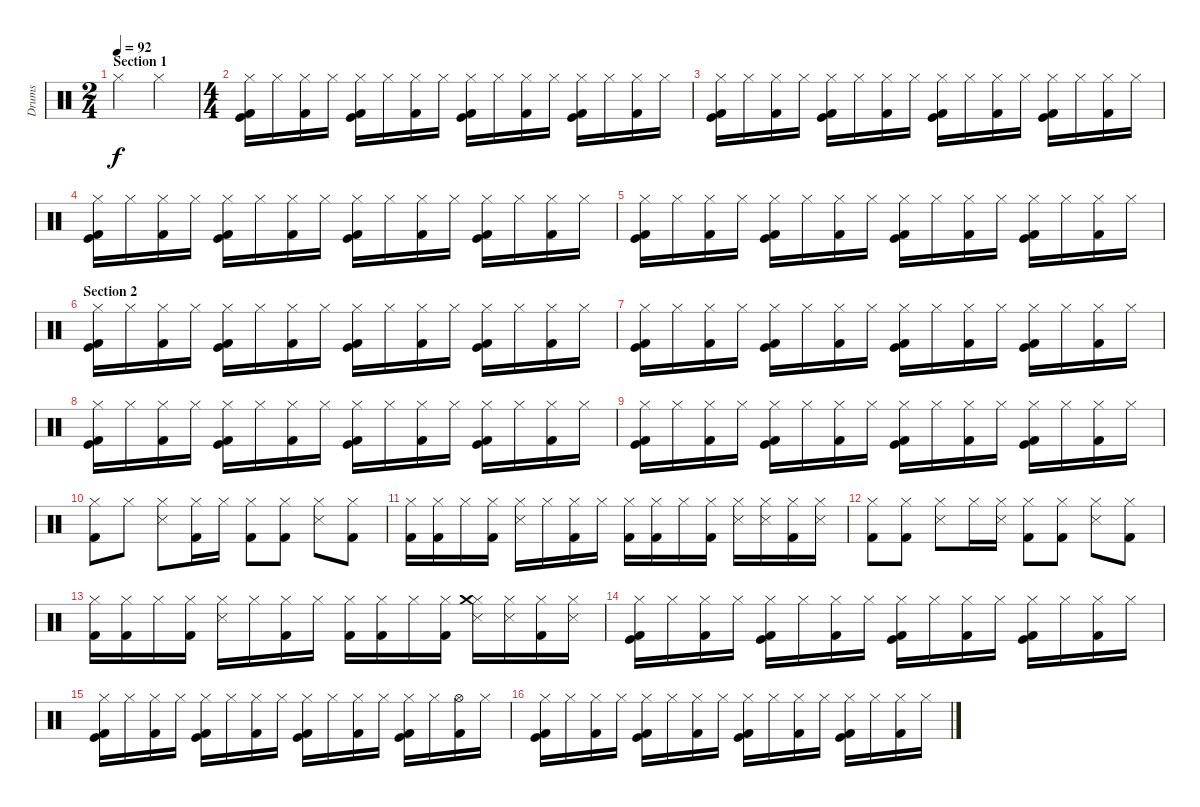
\track ("Drums" "Drums") {instrument percussion}
\staff {score}
\articulation defaults
\ts (2 4)
\section ("" "Section 1")
\tempo 92
\clef neutral
\ks c "Hi-Hat (closed)".4{dy f} "Hi-Hat (closed)".4
|
\ts (4 4)
("Hi-Hat (closed)" "Kick (hit)" "Kick (hit) 2").16 "Hi-Hat (closed)".16 ("Hi-Hat (closed)" "Kick (hit) 2").16 "Hi-Hat (closed)".16 ("Hi-Hat (closed)" "Kick (hit)" "Kick (hit) 2").16 "Hi-Hat (closed)".16 ("Hi-Hat (closed)" "Kick (hit) 2").16 "Hi-Hat (closed)".16 ("Hi-Hat (closed)" "Kick (hit)" "Kick (hit) 2").16 "Hi-Hat (closed)".16 ("Hi-Hat (closed)" "Kick (hit) 2").16 "Hi-Hat (closed)".16 ("Hi-Hat (closed)" "Kick (hit)" "Kick (hit) 2").16 "Hi-Hat (closed)".16 ("Hi-Hat (closed)" "Kick (hit) 2").16 "Hi-Hat (closed)".16 |
("Hi-Hat (closed)" "Kick (hit)" "Kick (hit) 2").16 "Hi-Hat (closed)".16 ("Hi-Hat (closed)" "Kick (hit) 2").16 "Hi-Hat (closed)".16 ("Hi-Hat (closed)" "Kick (hit)" "Kick (hit) 2").16 "Hi-Hat (closed)".16 ("Hi-Hat (closed)" "Kick (hit) 2").16 "Hi-Hat (closed)".16 ("Hi-Hat (closed)" "Kick (hit)" "Kick (hit) 2").16 "Hi-Hat (closed)".16 ("Hi-Hat (closed)" "Kick (hit) 2").16 "Hi-Hat (closed)".16 ("Hi-Hat (closed)" "Kick (hit)" "Kick (hit) 2").16 "Hi-Hat (closed)".16 ("Hi-Hat (closed)" "Kick (hit) 2").16 "Hi-Hat (closed)".16 |
("Hi-Hat (closed)" "Kick (hit)" "Kick (hit) 2").16 "Hi-Hat (closed)".16 ("Hi-Hat (closed)" "Kick (hit) 2").16 "Hi-Hat (closed)".16 ("Hi-Hat (closed)" "Kick (hit)" "Kick (hit) 2").16 "Hi-Hat (closed)".16 ("Hi-Hat (closed)" "Kick (hit) 2").16 "Hi-Hat (closed)".16 ("Hi-Hat (closed)" "Kick (hit)" "Kick (hit) 2").16 "Hi-Hat (closed)".16 ("Hi-Hat (closed)" "Kick (hit) 2").16 "Hi-Hat (closed)".16 ("Hi-Hat (closed)" "Kick (hit)" "Kick (hit) 2").16 "Hi-Hat (closed)".16 ("Hi-Hat (closed)" "Kick (hit) 2").16 "Hi-Hat (closed)".16 |
("Hi-Hat (closed)" "Kick (hit)" "Kick (hit) 2").16 "Hi-Hat (closed)".16 ("Hi-Hat (closed)" "Kick (hit) 2").16 "Hi-Hat (closed)".16 ("Hi-Hat (closed)" "Kick (hit)" "Kick (hit) 2").16 "Hi-Hat (closed)".16 ("Hi-Hat (closed)" "Kick (hit) 2").16 "Hi-Hat (closed)".16 ("Hi-Hat (closed)" "Kick (hit)" "Kick (hit) 2").16 "Hi-Hat (closed)".16 ("Hi-Hat (closed)" "Kick (hit) 2").16 "Hi-Hat (closed)".16 ("Hi-Hat (closed)" "Kick (hit)" "Kick (hit) 2").16 "Hi-Hat (closed)".16 ("Hi-Hat (closed)" "Kick (hit) 2").16 "Hi-Hat (closed)".16 |
\section ("" "Section 2")
("Hi-Hat (closed)" "Kick (hit)" "Kick (hit) 2").16 "Hi-Hat (closed)".16 ("Hi-Hat (closed)" "Kick (hit) 2").16 "Hi-Hat (closed)".16 ("Hi-Hat (closed)" "Kick (hit)" "Kick (hit) 2").16 "Hi-Hat (closed)".16 ("Hi-Hat (closed)" "Kick (hit) 2").16 "Hi-Hat (closed)".16 ("Hi-Hat (closed)" "Kick (hit)" "Kick (hit) 2").16 "Hi-Hat (closed)".16 ("Hi-Hat (closed)" "Kick (hit) 2").16 "Hi-Hat (closed)".16 ("Hi-Hat (closed)" "Kick (hit)" "Kick (hit) 2").16 "Hi-Hat (closed)".16 ("Hi-Hat (closed)" "Kick (hit) 2").16 "Hi-Hat (closed)".16 |
("Hi-Hat (closed)" "Kick (hit)" "Kick (hit) 2").16 "Hi-Hat (closed)".16 ("Hi-Hat (closed)" "Kick (hit) 2").16 "Hi-Hat (closed)".16 ("Hi-Hat (closed)" "Kick (hit)" "Kick (hit) 2").16 "Hi-Hat (closed)".16 ("Hi-Hat (closed)" "Kick (hit) 2").16 "Hi-Hat (closed)".16 ("Hi-Hat (closed)" "Kick (hit)" "Kick (hit) 2").16 "Hi-Hat (closed)".16 ("Hi-Hat (closed)" "Kick (hit) 2").16 "Hi-Hat (closed)".16 ("Hi-Hat (closed)" "Kick (hit)" "Kick (hit) 2").16 "Hi-Hat (closed)".16 ("Hi-Hat (closed)" "Kick (hit) 2").16 "Hi-Hat (closed)".16 |
("Hi-Hat (closed)" "Kick (hit)" "Kick (hit) 2").16 "Hi-Hat (closed)".16 ("Hi-Hat (closed)" "Kick (hit) 2").16 "Hi-Hat (closed)".16 ("Hi-Hat (closed)" "Kick (hit)" "Kick (hit) 2").16 "Hi-Hat (closed)".16 ("Hi-Hat (closed)" "Kick (hit) 2").16 "Hi-Hat (closed)".16 ("Hi-Hat (closed)" "Kick (hit)" "Kick (hit) 2").16 "Hi-Hat (closed)".16 ("Hi-Hat (closed)" "Kick (hit) 2").16 "Hi-Hat (closed)".16 ("Hi-Hat (closed)" "Kick (hit)" "Kick (hit) 2").16 "Hi-Hat (closed)".16 ("Hi-Hat (closed)" "Kick (hit) 2").16 "Hi-Hat (closed)".16 |
("Hi-Hat (closed)" "Kick (hit)" "Kick (hit) 2").16 "Hi-Hat (closed)".16 ("Hi-Hat (closed)" "Kick (hit) 2").16 "Hi-Hat (closed)".16 ("Hi-Hat (closed)" "Kick (hit)" "Kick (hit) 2").16 "Hi-Hat (closed)".16 ("Hi-Hat (closed)" "Kick (hit) 2").16 "Hi-Hat (closed)".16 ("Hi-Hat (closed)" "Kick (hit)" "Kick (hit) 2").16 "Hi-Hat (closed)".16 ("Hi-Hat (closed)" "Kick (hit) 2").16 "Hi-Hat (closed)".16 ("Hi-Hat (closed)" "Kick (hit)" "Kick (hit) 2").16 "Hi-Hat (closed)".16 ("Hi-Hat (closed)" "Kick (hit) 2").16 "Hi-Hat (closed)".16 |
("Hi-Hat (closed)" "Kick (hit) 2").8 "Hi-Hat (closed)".8 ("Hi-Hat (closed)" "Snare (side stick) 3").8 ("Hi-Hat (closed)" "Kick (hit) 2").16 "Hi-Hat (closed)".16 ("Hi-Hat (closed)" "Kick (hit) 2").8 ("Hi-Hat (closed)" "Kick (hit) 2").8 ("Hi-Hat (closed)" "Snare (side stick) 3").8 ("Hi-Hat (closed)" "Kick (hit) 2").8 |
("Hi-Hat (closed)" "Kick (hit) 2").16 ("Hi-Hat (closed)" "Kick (hit) 2").16 "Hi-Hat (closed)".16 ("Hi-Hat (closed)" "Kick (hit) 2").16 ("Hi-Hat (closed)" "Snare (side stick) 3").16 "Hi-Hat (closed)".16 ("Hi-Hat (closed)" "Kick (hit) 2").16 "Hi-Hat (closed)".16 ("Hi-Hat (closed)" "Kick (hit) 2").16 ("Hi-Hat (closed)" "Kick (hit) 2").16 "Hi-Hat (closed)".16 ("Hi-Hat (closed)" "Kick (hit) 2").16 ("Hi-Hat (closed)" "Snare (side stick) 3").16 ("Hi-Hat (closed)" "Snare (side stick) 3").16 ("Hi-Hat (closed)" "Kick (hit) 2").16 ("Hi-Hat (closed)" "Snare (side stick) 3").16 |
("Hi-Hat (closed)" "Kick (hit) 2").8 ("Hi-Hat (closed)" "Kick (hit) 2").8 ("Hi-Hat (closed)" "Snare (side stick) 3").8 "Hi-Hat (closed)".16 ("Hi-Hat (closed)" "Snare (side stick) 3").16 ("Hi-Hat (closed)" "Kick (hit) 2").8 ("Hi-Hat (closed)" "Kick (hit) 2").8 ("Hi-Hat (closed)" "Snare (side stick) 3").8 ("Hi-Hat (closed)" "Kick (hit) 2").8 |
("Hi-Hat (closed)" "Kick (hit) 2").16 ("Hi-Hat (closed)" "Kick (hit) 2").16 "Hi-Hat (closed)".16 ("Hi-Hat (closed)" "Kick (hit) 2").16 ("Hi-Hat (closed)" "Snare (side stick) 3").16 "Hi-Hat (closed)".16 ("Hi-Hat (closed)" "Kick (hit) 2").16 "Hi-Hat (closed)".16 ("Hi-Hat (closed)" "Kick (hit) 2").16 ("Hi-Hat (closed)" "Kick (hit) 2").16 "Hi-Hat (closed)".16 ("Hi-Hat (closed)" "Kick (hit) 2").16 ("Hi-Hat (closed)" "Crash medium (hit)" "Snare (side stick) 3").16 ("Hi-Hat (closed)" "Snare (side stick) 3").16 ("Hi-Hat (closed)" "Kick (hit) 2").16 ("Hi-Hat (closed)" "Snare (side stick) 3").16 |
("Hi-Hat (closed)" "Kick (hit)" "Kick (hit) 2").16 "Hi-Hat (closed)".16 ("Hi-Hat (closed)" "Kick (hit) 2").16 "Hi-Hat (closed)".16 ("Hi-Hat (closed)" "Kick (hit)" "Kick (hit) 2").16 "Hi-Hat (closed)".16 ("Hi-Hat (closed)" "Kick (hit) 2").16 "Hi-Hat (closed)".16 ("Hi-Hat (closed)" "Kick (hit)" "Kick (hit) 2").16 "Hi-Hat (closed)".16 ("Hi-Hat (closed)" "Kick (hit) 2").16 "Hi-Hat (closed)".16 ("Hi-Hat (closed)" "Kick (hit)" "Kick (hit) 2").16 "Hi-Hat (closed)".16 ("Hi-Hat (closed)" "Kick (hit) 2").16 "Hi-Hat (closed)".16 |
("Hi-Hat (closed)" "Kick (hit)" "Kick (hit) 2").16 "Hi-Hat (closed)".16 ("Hi-Hat (closed)" "Kick (hit) 2").16 "Hi-Hat (closed)".16 ("Hi-Hat (closed)" "Kick (hit)" "Kick (hit) 2").16 "Hi-Hat (closed)".16 ("Hi-Hat (closed)" "Kick (hit) 2").16 "Hi-Hat (closed)".16 ("Hi-Hat (closed)" "Kick (hit)" "Kick (hit) 2").16 "Hi-Hat (closed)".16 ("Hi-Hat (closed)" "Kick (hit) 2").16 "Hi-Hat (closed)".16 ("Hi-Hat (closed)" "Kick (hit)" "Kick (hit) 2").16 "Hi-Hat (closed)".16 ("Hi-Hat (open)" "Kick (hit) 2").16 "Hi-Hat (closed)".16 |
("Hi-Hat (closed)" "Kick (hit)" "Kick (hit) 2").16 "Hi-Hat (closed)".16 ("Hi-Hat (closed)" "Kick (hit) 2").16 "Hi-Hat (closed)".16 ("Hi-Hat (closed)" "Kick (hit)" "Kick (hit) 2").16 "Hi-Hat (closed)".16 ("Hi-Hat (closed)" "Kick (hit) 2").16 "Hi-Hat (closed)".16 ("Hi-Hat (closed)" "Kick (hit)" "Kick (hit) 2").16 "Hi-Hat (closed)".16 ("Hi-Hat (closed)" "Kick (hit) 2").16 "Hi-Hat (closed)".16 ("Hi-Hat (closed)" "Kick (hit)" "Kick (hit) 2").16 "Hi-Hat (closed)".16 ("Hi-Hat (closed)" "Kick (hit) 2").16 "Hi-Hat (closed)".16
